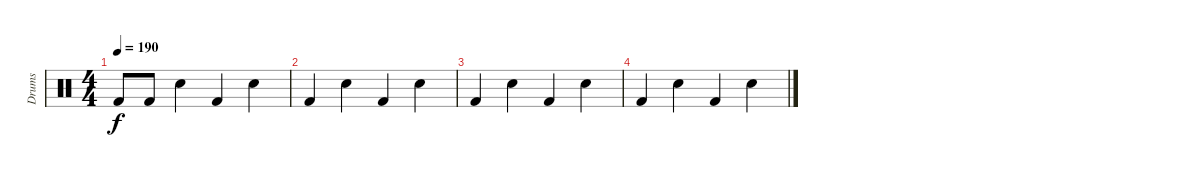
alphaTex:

\track ("Drums" "Drums") {instrument percussion}
\staff {score}
\articulation defaults
\ts (4 4)
\tempo 190
\clef neutral
\ks c "Kick (hit) 2".8{dy f} "Kick (hit) 2".8 "Electric Snare (hit)".4 "Kick (hit) 2".4 "Electric Snare (hit)".4
|
"Kick (hit) 2".4 "Electric Snare (hit)".4 "Kick (hit) 2".4 "Electric Snare (hit)".4 |
"Kick (hit) 2".4 "Electric Snare (hit)".4 "Kick (hit) 2".4 "Electric Snare (hit)".4 |
"Kick (hit) 2".4 "Electric Snare (hit)".4 "Kick (hit) 2".4 "Electric Snare (hit)".4
